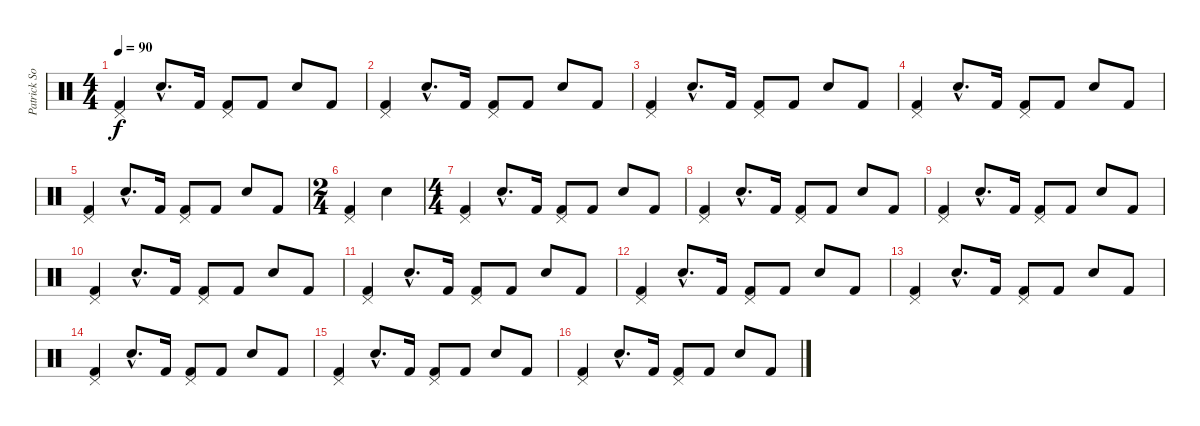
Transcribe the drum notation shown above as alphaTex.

\track ("Patrick Soria" "Patrick So") {instrument percussion}
\staff {score}
\articulation defaults
\ts (4 4)
\tempo 90
\clef neutral
\ks c
("Pedal Hi-Hat (hit)" "Kick (hit) 2").4{dy f} "Snare (hit) 2"{hac}.8{d} "Kick (hit) 2".16 ("Pedal Hi-Hat (hit)" "Kick (hit) 2").8 "Kick (hit) 2".8 "Snare (hit) 2".8 "Kick (hit) 2".8 |
("Pedal Hi-Hat (hit)" "Kick (hit) 2").4 "Snare (hit) 2"{hac}.8{d} "Kick (hit) 2".16 ("Pedal Hi-Hat (hit)" "Kick (hit) 2").8 "Kick (hit) 2".8 "Snare (hit) 2".8 "Kick (hit) 2".8 |
("Pedal Hi-Hat (hit)" "Kick (hit) 2").4 "Snare (hit) 2"{hac}.8{d} "Kick (hit) 2".16 ("Pedal Hi-Hat (hit)" "Kick (hit) 2").8 "Kick (hit) 2".8 "Snare (hit) 2".8 "Kick (hit) 2".8 |
("Pedal Hi-Hat (hit)" "Kick (hit) 2").4 "Snare (hit) 2"{hac}.8{d} "Kick (hit) 2".16 ("Pedal Hi-Hat (hit)" "Kick (hit) 2").8 "Kick (hit) 2".8 "Snare (hit) 2".8 "Kick (hit) 2".8 |
("Pedal Hi-Hat (hit)" "Kick (hit) 2").4 "Snare (hit) 2"{hac}.8{d} "Kick (hit) 2".16 ("Pedal Hi-Hat (hit)" "Kick (hit) 2").8 "Kick (hit) 2".8 "Snare (hit) 2".8 "Kick (hit) 2".8 |
\ts (2 4)
("Pedal Hi-Hat (hit)" "Kick (hit) 2").4 "Snare (hit) 2".4 |
\ts (4 4)
("Pedal Hi-Hat (hit)" "Kick (hit) 2").4 "Snare (hit) 2"{hac}.8{d} "Kick (hit) 2".16 ("Pedal Hi-Hat (hit)" "Kick (hit) 2").8 "Kick (hit) 2".8 "Snare (hit) 2".8 "Kick (hit) 2".8 |
("Pedal Hi-Hat (hit)" "Kick (hit) 2").4 "Snare (hit) 2"{hac}.8{d} "Kick (hit) 2".16 ("Pedal Hi-Hat (hit)" "Kick (hit) 2").8 "Kick (hit) 2".8 "Snare (hit) 2".8 "Kick (hit) 2".8 |
("Pedal Hi-Hat (hit)" "Kick (hit) 2").4 "Snare (hit) 2"{hac}.8{d} "Kick (hit) 2".16 ("Pedal Hi-Hat (hit)" "Kick (hit) 2").8 "Kick (hit) 2".8 "Snare (hit) 2".8 "Kick (hit) 2".8 |
("Pedal Hi-Hat (hit)" "Kick (hit) 2").4 "Snare (hit) 2"{hac}.8{d} "Kick (hit) 2".16 ("Pedal Hi-Hat (hit)" "Kick (hit) 2").8 "Kick (hit) 2".8 "Snare (hit) 2".8 "Kick (hit) 2".8 |
("Pedal Hi-Hat (hit)" "Kick (hit) 2").4 "Snare (hit) 2"{hac}.8{d} "Kick (hit) 2".16 ("Pedal Hi-Hat (hit)" "Kick (hit) 2").8 "Kick (hit) 2".8 "Snare (hit) 2".8 "Kick (hit) 2".8 |
("Pedal Hi-Hat (hit)" "Kick (hit) 2").4 "Snare (hit) 2"{hac}.8{d} "Kick (hit) 2".16 ("Pedal Hi-Hat (hit)" "Kick (hit) 2").8 "Kick (hit) 2".8 "Snare (hit) 2".8 "Kick (hit) 2".8 |
("Pedal Hi-Hat (hit)" "Kick (hit) 2").4 "Snare (hit) 2"{hac}.8{d} "Kick (hit) 2".16 ("Pedal Hi-Hat (hit)" "Kick (hit) 2").8 "Kick (hit) 2".8 "Snare (hit) 2".8 "Kick (hit) 2".8 |
("Pedal Hi-Hat (hit)" "Kick (hit) 2").4 "Snare (hit) 2"{hac}.8{d} "Kick (hit) 2".16 ("Pedal Hi-Hat (hit)" "Kick (hit) 2").8 "Kick (hit) 2".8 "Snare (hit) 2".8 "Kick (hit) 2".8 |
("Pedal Hi-Hat (hit)" "Kick (hit) 2").4 "Snare (hit) 2"{hac}.8{d} "Kick (hit) 2".16 ("Pedal Hi-Hat (hit)" "Kick (hit) 2").8 "Kick (hit) 2".8 "Snare (hit) 2".8 "Kick (hit) 2".8 |
("Pedal Hi-Hat (hit)" "Kick (hit) 2").4 "Snare (hit) 2"{hac}.8{d} "Kick (hit) 2".16 ("Pedal Hi-Hat (hit)" "Kick (hit) 2").8 "Kick (hit) 2".8 "Snare (hit) 2".8 "Kick (hit) 2".8
